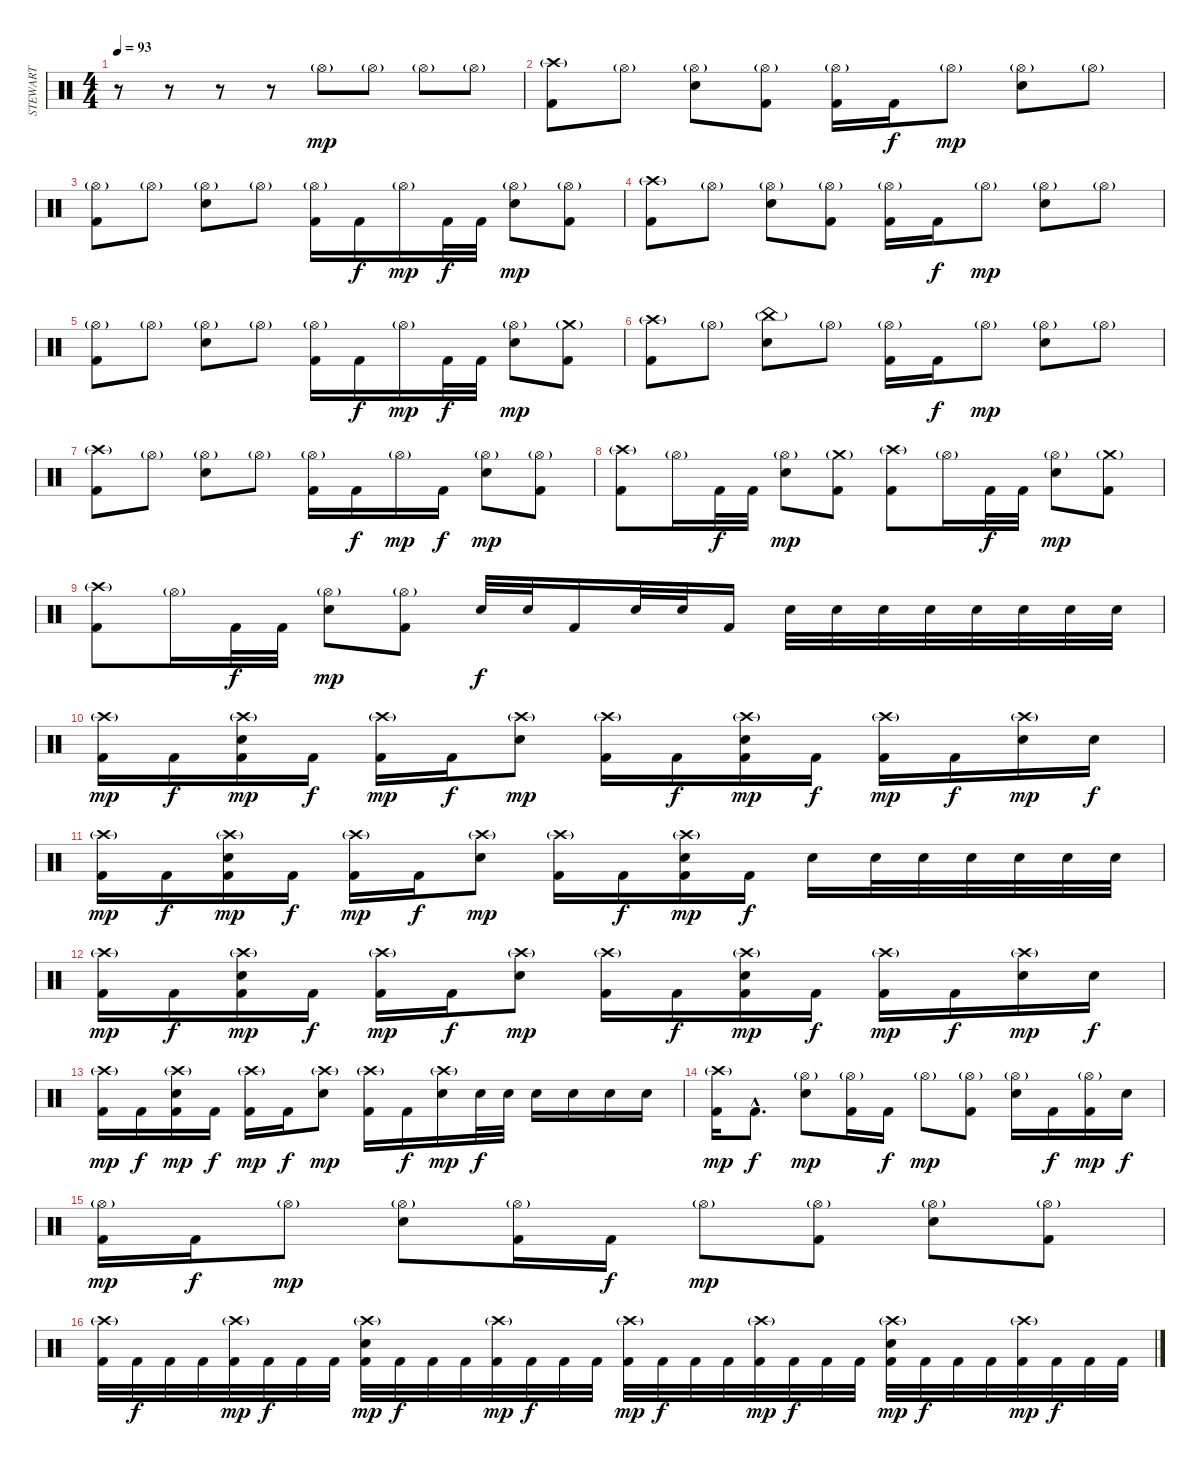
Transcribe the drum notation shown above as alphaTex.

\track ("STEWART" "STEWART") {instrument percussion}
\staff {score}
\articulation defaults
\ts (4 4)
\tempo 93
\clef neutral
\ks c
r.8{dy mp} r.8 r.8 r.8 "Hi-Hat (open)"{g}.8 "Hi-Hat (open)"{g}.8 "Hi-Hat (open)"{g}.8 "Hi-Hat (open)"{g}.8 |
("Crash high (hit)"{g} "Kick (hit) 2").8 "Hi-Hat (open)"{g}.8 ("Hi-Hat (open)"{g} "Electric Snare (hit)").8 ("Hi-Hat (open)"{g} "Kick (hit) 2").8 ("Hi-Hat (open)"{g} "Kick (hit) 2").16 "Kick (hit) 2".16{dy f} "Hi-Hat (open)"{g}.8{dy mp} ("Hi-Hat (open)"{g} "Electric Snare (hit)").8 "Hi-Hat (open)"{g}.8 |
("Hi-Hat (open)"{g} "Kick (hit) 2").8 "Hi-Hat (open)"{g}.8 ("Hi-Hat (open)"{g} "Electric Snare (hit)").8 "Hi-Hat (open)"{g}.8 ("Hi-Hat (open)"{g} "Kick (hit) 2").16 "Kick (hit) 2".16{dy f} "Hi-Hat (open)"{g}.16{dy mp} "Kick (hit) 2".32{dy f} "Kick (hit) 2".32 ("Hi-Hat (open)"{g} "Electric Snare (hit)").8{dy mp} ("Hi-Hat (open)"{g} "Kick (hit) 2").8 |
("Crash high (hit)"{g} "Kick (hit) 2").8 "Hi-Hat (open)"{g}.8 ("Hi-Hat (open)"{g} "Electric Snare (hit)").8 ("Hi-Hat (open)"{g} "Kick (hit) 2").8 ("Hi-Hat (open)"{g} "Kick (hit) 2").16 "Kick (hit) 2".16{dy f} "Hi-Hat (open)"{g}.8{dy mp} ("Hi-Hat (open)"{g} "Electric Snare (hit)").8 "Hi-Hat (open)"{g}.8 |
("Hi-Hat (open)"{g} "Kick (hit) 2").8 "Hi-Hat (open)"{g}.8 ("Hi-Hat (open)"{g} "Electric Snare (hit)").8 "Hi-Hat (open)"{g}.8 ("Hi-Hat (open)"{g} "Kick (hit) 2").16 "Kick (hit) 2".16{dy f} "Hi-Hat (open)"{g}.16{dy mp} "Kick (hit) 2".32{dy f} "Kick (hit) 2".32 ("Hi-Hat (open)"{g} "Electric Snare (hit)").8{dy mp} ("Crash medium (hit)"{g} "Kick (hit) 2").8 |
("Crash high (hit)"{g} "Kick (hit) 2").8 "Hi-Hat (open)"{g}.8 ("China (hit)"{g} "Electric Snare (hit)").8 "Hi-Hat (open)"{g}.8 ("Hi-Hat (open)"{g} "Kick (hit) 2").16 "Kick (hit) 2".16{dy f} "Hi-Hat (open)"{g}.8{dy mp} ("Hi-Hat (open)"{g} "Electric Snare (hit)").8 "Hi-Hat (open)"{g}.8 |
("Crash high (hit)"{g} "Kick (hit) 2").8 "Hi-Hat (open)"{g}.8 ("Hi-Hat (open)"{g} "Electric Snare (hit)").8 "Hi-Hat (open)"{g}.8 ("Hi-Hat (open)"{g} "Kick (hit) 2").16 "Kick (hit) 2".16{dy f} "Hi-Hat (open)"{g}.16{dy mp} "Kick (hit) 2".16{dy f} ("Hi-Hat (open)"{g} "Electric Snare (hit)").8{dy mp} ("Hi-Hat (open)"{g} "Kick (hit) 2").8 |
("Crash high (hit)"{g} "Kick (hit) 2").8 "Hi-Hat (open)"{g}.16 "Kick (hit) 2".32{dy f} "Kick (hit) 2".32 ("Hi-Hat (open)"{g} "Electric Snare (hit)").8{dy mp} ("Crash medium (hit)"{g} "Kick (hit) 2").8 ("Crash high (hit)"{g} "Kick (hit) 2").8 "Hi-Hat (open)"{g}.16 "Kick (hit) 2".32{dy f} "Kick (hit) 2".32 ("Hi-Hat (open)"{g} "Electric Snare (hit)").8{dy mp} ("Crash medium (hit)"{g} "Kick (hit) 2").8 |
("Crash high (hit)"{g} "Kick (hit) 2").8 "Hi-Hat (open)"{g}.16 "Kick (hit) 2".32{dy f} "Kick (hit) 2".32 ("Hi-Hat (open)"{g} "Electric Snare (hit)").8{dy mp} ("Hi-Hat (open)"{g} "Kick (hit) 2").8 "Electric Snare (hit)".32{dy f} "Electric Snare (hit)".32 "Kick (hit) 2".16 "Electric Snare (hit)".32 "Electric Snare (hit)".32 "Kick (hit) 2".16 "Electric Snare (hit)".32 "Electric Snare (hit)".32 "Electric Snare (hit)".32 "Electric Snare (hit)".32 "Electric Snare (hit)".32 "Electric Snare (hit)".32 "Electric Snare (hit)".32 "Electric Snare (hit)".32 |
("Crash high (hit)"{g} "Kick (hit) 2").16{dy mp} "Kick (hit) 2".16{dy f} ("Crash high (hit)"{g} "Electric Snare (hit)" "Kick (hit) 2").16{dy mp} "Kick (hit) 2".16{dy f} ("Crash high (hit)"{g} "Kick (hit) 2").16{dy mp} "Kick (hit) 2".16{dy f} ("Crash high (hit)"{g} "Electric Snare (hit)").8{dy mp} ("Crash high (hit)"{g} "Kick (hit) 2").16 "Kick (hit) 2".16{dy f} ("Crash high (hit)"{g} "Electric Snare (hit)" "Kick (hit) 2").16{dy mp} "Kick (hit) 2".16{dy f} ("Crash high (hit)"{g} "Kick (hit) 2").16{dy mp} "Kick (hit) 2".16{dy f} ("Crash high (hit)"{g} "Electric Snare (hit)").16{dy mp} "Electric Snare (hit)".16{dy f} |
("Crash high (hit)"{g} "Kick (hit) 2").16{dy mp} "Kick (hit) 2".16{dy f} ("Crash high (hit)"{g} "Electric Snare (hit)" "Kick (hit) 2").16{dy mp} "Kick (hit) 2".16{dy f} ("Crash high (hit)"{g} "Kick (hit) 2").16{dy mp} "Kick (hit) 2".16{dy f} ("Crash high (hit)"{g} "Electric Snare (hit)").8{dy mp} ("Crash high (hit)"{g} "Kick (hit) 2").16 "Kick (hit) 2".16{dy f} ("Crash high (hit)"{g} "Electric Snare (hit)" "Kick (hit) 2").16{dy mp} "Kick (hit) 2".16{dy f} "Electric Snare (hit)".16 "Electric Snare (hit)".32 "Electric Snare (hit)".32 "Electric Snare (hit)".32 "Electric Snare (hit)".32 "Electric Snare (hit)".32 "Electric Snare (hit)".32 |
("Crash high (hit)"{g} "Kick (hit) 2").16{dy mp} "Kick (hit) 2".16{dy f} ("Crash high (hit)"{g} "Electric Snare (hit)" "Kick (hit) 2").16{dy mp} "Kick (hit) 2".16{dy f} ("Crash high (hit)"{g} "Kick (hit) 2").16{dy mp} "Kick (hit) 2".16{dy f} ("Crash high (hit)"{g} "Electric Snare (hit)").8{dy mp} ("Crash high (hit)"{g} "Kick (hit) 2").16 "Kick (hit) 2".16{dy f} ("Crash high (hit)"{g} "Electric Snare (hit)" "Kick (hit) 2").16{dy mp} "Kick (hit) 2".16{dy f} ("Crash high (hit)"{g} "Kick (hit) 2").16{dy mp} "Kick (hit) 2".16{dy f} ("Crash high (hit)"{g} "Electric Snare (hit)").16{dy mp} "Electric Snare (hit)".16{dy f} |
("Crash high (hit)"{g} "Kick (hit) 2").16{dy mp} "Kick (hit) 2".16{dy f} ("Crash high (hit)"{g} "Electric Snare (hit)" "Kick (hit) 2").16{dy mp} "Kick (hit) 2".16{dy f} ("Crash high (hit)"{g} "Kick (hit) 2").16{dy mp} "Kick (hit) 2".16{dy f} ("Crash high (hit)"{g} "Electric Snare (hit)").8{dy mp} ("Crash high (hit)"{g} "Kick (hit) 2").16 "Kick (hit) 2".16{dy f} ("Crash high (hit)"{g} "Electric Snare (hit)").16{dy mp} "Electric Snare (hit)".32{dy f} "Electric Snare (hit)".32 "Electric Snare (hit)".16 "Electric Snare (hit)".16 "Electric Snare (hit)".16 "Electric Snare (hit)".16 |
("Crash high (hit)"{g} "Kick (hit) 2").16{dy mp} "Kick (hit) 2"{hac}.8{d dy f} ("Hi-Hat (open)"{g} "Electric Snare (hit)").8{dy mp} ("Hi-Hat (open)"{g} "Kick (hit) 2").16 "Kick (hit) 2".16{dy f} "Hi-Hat (open)"{g}.8{dy mp} ("Hi-Hat (open)"{g} "Kick (hit) 2").8 ("Hi-Hat (open)"{g} "Electric Snare (hit)").16 "Kick (hit) 2".16{dy f} ("Hi-Hat (open)"{g} "Kick (hit) 2").16{dy mp} "Electric Snare (hit)".16{dy f} |
("Hi-Hat (open)"{g} "Kick (hit) 2").16{dy mp} "Kick (hit) 2".16{dy f} "Hi-Hat (open)"{g}.8{dy mp} ("Hi-Hat (open)"{g} "Electric Snare (hit)").8 ("Hi-Hat (open)"{g} "Kick (hit) 2").16 "Kick (hit) 2".16{dy f} "Hi-Hat (open)"{g}.8{dy mp} ("Hi-Hat (open)"{g} "Kick (hit) 2").8 ("Hi-Hat (open)"{g} "Electric Snare (hit)").8 ("Hi-Hat (open)"{g} "Kick (hit) 2").8 |
("Crash high (hit)"{g} "Kick (hit) 2").32 "Kick (hit) 2".32{dy f} "Kick (hit) 2".32 "Kick (hit) 2".32 ("Crash high (hit)"{g} "Kick (hit) 2").32{dy mp} "Kick (hit) 2".32{dy f} "Kick (hit) 2".32 "Kick (hit) 2".32 ("Crash high (hit)"{g} "Electric Snare (hit)" "Kick (hit) 2").32{dy mp} "Kick (hit) 2".32{dy f} "Kick (hit) 2".32 "Kick (hit) 2".32 ("Crash high (hit)"{g} "Kick (hit) 2").32{dy mp} "Kick (hit) 2".32{dy f} "Kick (hit) 2".32 "Kick (hit) 2".32 ("Crash high (hit)"{g} "Kick (hit) 2").32{dy mp} "Kick (hit) 2".32{dy f} "Kick (hit) 2".32 "Kick (hit) 2".32 ("Crash high (hit)"{g} "Kick (hit) 2").32{dy mp} "Kick (hit) 2".32{dy f} "Kick (hit) 2".32 "Kick (hit) 2".32 ("Crash high (hit)"{g} "Electric Snare (hit)" "Kick (hit) 2").32{dy mp} "Kick (hit) 2".32{dy f} "Kick (hit) 2".32 "Kick (hit) 2".32 ("Crash high (hit)"{g} "Kick (hit) 2").32{dy mp} "Kick (hit) 2".32{dy f} "Kick (hit) 2".32 "Kick (hit) 2".32
